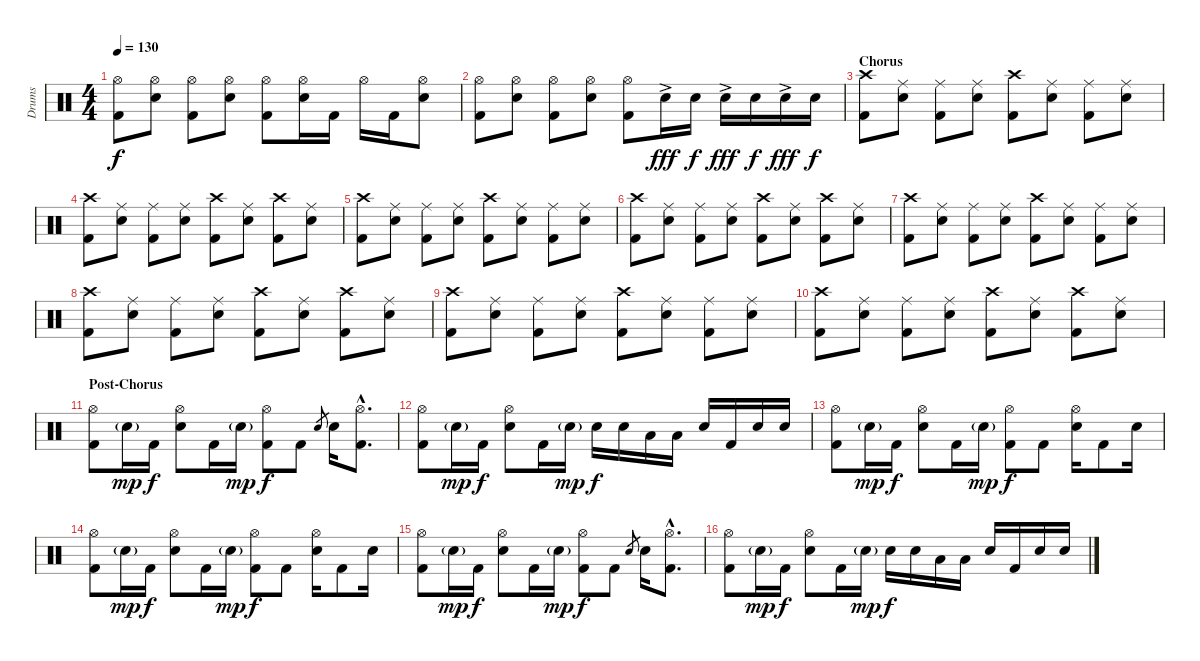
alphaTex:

\track ("Drums" "Drums") {instrument percussion}
\staff {score}
\articulation defaults
\ts (4 4)
\tempo 130
\clef neutral
\ks c
("Hi-Hat (open)" "Kick (hit) 2").8{dy f} ("Hi-Hat (open)" "Snare (hit) 2").8 ("Hi-Hat (open)" "Kick (hit) 2").8 ("Hi-Hat (open)" "Snare (hit) 2").8 ("Hi-Hat (open)" "Kick (hit) 2").8 ("Hi-Hat (open)" "Snare (hit) 2").16 "Kick (hit) 2".16 "Hi-Hat (open)".16 "Kick (hit) 2".16 ("Hi-Hat (open)" "Snare (hit) 2").8 |
("Hi-Hat (open)" "Kick (hit) 2").8 ("Hi-Hat (open)" "Snare (hit) 2").8 ("Hi-Hat (open)" "Kick (hit) 2").8 ("Hi-Hat (open)" "Snare (hit) 2").8 ("Hi-Hat (open)" "Kick (hit) 2").8 "Snare (hit) 2"{ac}.16{dy fff} "Snare (hit) 2".16{dy f} "Snare (hit) 2"{ac}.16{dy fff} "Snare (hit) 2".16{dy f} "Snare (hit) 2"{ac}.16{dy fff} "Snare (hit) 2".16{dy f} |
\section ("" "Chorus")
("Crash high (hit)" "Kick (hit) 2").8 ("Ride (middle)" "Snare (hit) 2").8 ("Ride (middle)" "Kick (hit) 2").8 ("Ride (middle)" "Snare (hit) 2").8 ("Crash high (hit)" "Kick (hit) 2").8 ("Ride (middle)" "Snare (hit) 2").8 ("Ride (middle)" "Kick (hit) 2").8 ("Ride (middle)" "Snare (hit) 2").8 |
("Crash high (hit)" "Kick (hit) 2").8 ("Ride (middle)" "Snare (hit) 2").8 ("Ride (middle)" "Kick (hit) 2").8 ("Ride (middle)" "Snare (hit) 2").8 ("Crash high (hit)" "Kick (hit) 2").8 ("Ride (middle)" "Snare (hit) 2").8 ("Crash high (hit)" "Kick (hit) 2").8 ("Ride (middle)" "Snare (hit) 2").8 |
("Crash high (hit)" "Kick (hit) 2").8 ("Ride (middle)" "Snare (hit) 2").8 ("Ride (middle)" "Kick (hit) 2").8 ("Ride (middle)" "Snare (hit) 2").8 ("Crash high (hit)" "Kick (hit) 2").8 ("Ride (middle)" "Snare (hit) 2").8 ("Ride (middle)" "Kick (hit) 2").8 ("Ride (middle)" "Snare (hit) 2").8 |
("Crash high (hit)" "Kick (hit) 2").8 ("Ride (middle)" "Snare (hit) 2").8 ("Ride (middle)" "Kick (hit) 2").8 ("Ride (middle)" "Snare (hit) 2").8 ("Crash high (hit)" "Kick (hit) 2").8 ("Ride (middle)" "Snare (hit) 2").8 ("Crash high (hit)" "Kick (hit) 2").8 ("Ride (middle)" "Snare (hit) 2").8 |
("Crash high (hit)" "Kick (hit) 2").8 ("Ride (middle)" "Snare (hit) 2").8 ("Ride (middle)" "Kick (hit) 2").8 ("Ride (middle)" "Snare (hit) 2").8 ("Crash high (hit)" "Kick (hit) 2").8 ("Ride (middle)" "Snare (hit) 2").8 ("Ride (middle)" "Kick (hit) 2").8 ("Ride (middle)" "Snare (hit) 2").8 |
("Crash high (hit)" "Kick (hit) 2").8 ("Ride (middle)" "Snare (hit) 2").8 ("Ride (middle)" "Kick (hit) 2").8 ("Ride (middle)" "Snare (hit) 2").8 ("Crash high (hit)" "Kick (hit) 2").8 ("Ride (middle)" "Snare (hit) 2").8 ("Crash high (hit)" "Kick (hit) 2").8 ("Ride (middle)" "Snare (hit) 2").8 |
("Crash high (hit)" "Kick (hit) 2").8 ("Ride (middle)" "Snare (hit) 2").8 ("Ride (middle)" "Kick (hit) 2").8 ("Ride (middle)" "Snare (hit) 2").8 ("Crash high (hit)" "Kick (hit) 2").8 ("Ride (middle)" "Snare (hit) 2").8 ("Ride (middle)" "Kick (hit) 2").8 ("Ride (middle)" "Snare (hit) 2").8 |
("Crash high (hit)" "Kick (hit) 2").8 ("Ride (middle)" "Snare (hit) 2").8 ("Ride (middle)" "Kick (hit) 2").8 ("Ride (middle)" "Snare (hit) 2").8 ("Crash high (hit)" "Kick (hit) 2").8 ("Ride (middle)" "Snare (hit) 2").8 ("Crash high (hit)" "Kick (hit) 2").8 ("Ride (middle)" "Snare (hit) 2").8 |
\section ("" "Post-Chorus")
("Hi-Hat (open)" "Kick (hit) 2").8 "Snare (hit) 2"{g}.16{dy mp} "Kick (hit) 2".16{dy f} ("Hi-Hat (open)" "Snare (hit) 2").8 "Kick (hit) 2".16 "Snare (hit) 2"{g}.16{dy mp} ("Hi-Hat (open)" "Kick (hit) 2").8{dy f} "Kick (hit) 2".8 "Snare (hit) 2".8{gr} "Snare (hit) 2".16 ("Hi-Hat (open)"{hac} "Kick (hit) 2"{hac}).8{d} |
("Hi-Hat (open)" "Kick (hit) 2").8 "Snare (hit) 2"{g}.16{dy mp} "Kick (hit) 2".16{dy f} ("Hi-Hat (open)" "Snare (hit) 2").8 "Kick (hit) 2".16 "Snare (hit) 2"{g}.16{dy mp} "Snare (hit) 2".16{dy f} "Snare (hit) 2".16 "Low Tom (hit)".16 "Low Floor Tom (hit)".16 "Snare (hit) 2".16 "Kick (hit) 2".16 "Snare (hit) 2".16 "Snare (hit) 2".16 |
("Hi-Hat (open)" "Kick (hit) 2").8 "Snare (hit) 2"{g}.16{dy mp} "Kick (hit) 2".16{dy f} ("Hi-Hat (open)" "Snare (hit) 2").8 "Kick (hit) 2".16 "Snare (hit) 2"{g}.16{dy mp} ("Hi-Hat (open)" "Kick (hit) 2").8{dy f} "Kick (hit) 2".8 ("Hi-Hat (open)" "Snare (hit) 2").16 "Kick (hit) 2".8 "Snare (hit) 2".16 |
("Hi-Hat (open)" "Kick (hit) 2").8 "Snare (hit) 2"{g}.16{dy mp} "Kick (hit) 2".16{dy f} ("Hi-Hat (open)" "Snare (hit) 2").8 "Kick (hit) 2".16 "Snare (hit) 2"{g}.16{dy mp} ("Hi-Hat (open)" "Kick (hit) 2").8{dy f} "Kick (hit) 2".8 ("Hi-Hat (open)" "Snare (hit) 2").16 "Kick (hit) 2".8 "Snare (hit) 2".16 |
("Hi-Hat (open)" "Kick (hit) 2").8 "Snare (hit) 2"{g}.16{dy mp} "Kick (hit) 2".16{dy f} ("Hi-Hat (open)" "Snare (hit) 2").8 "Kick (hit) 2".16 "Snare (hit) 2"{g}.16{dy mp} ("Hi-Hat (open)" "Kick (hit) 2").8{dy f} "Kick (hit) 2".8 "Snare (hit) 2".8{gr} "Snare (hit) 2".16 ("Hi-Hat (open)"{hac} "Kick (hit) 2"{hac}).8{d} |
("Hi-Hat (open)" "Kick (hit) 2").8 "Snare (hit) 2"{g}.16{dy mp} "Kick (hit) 2".16{dy f} ("Hi-Hat (open)" "Snare (hit) 2").8 "Kick (hit) 2".16 "Snare (hit) 2"{g}.16{dy mp} "Snare (hit) 2".16{dy f} "Snare (hit) 2".16 "Low Tom (hit)".16 "Low Floor Tom (hit)".16 "Snare (hit) 2".16 "Kick (hit) 2".16 "Snare (hit) 2".16 "Snare (hit) 2".16
